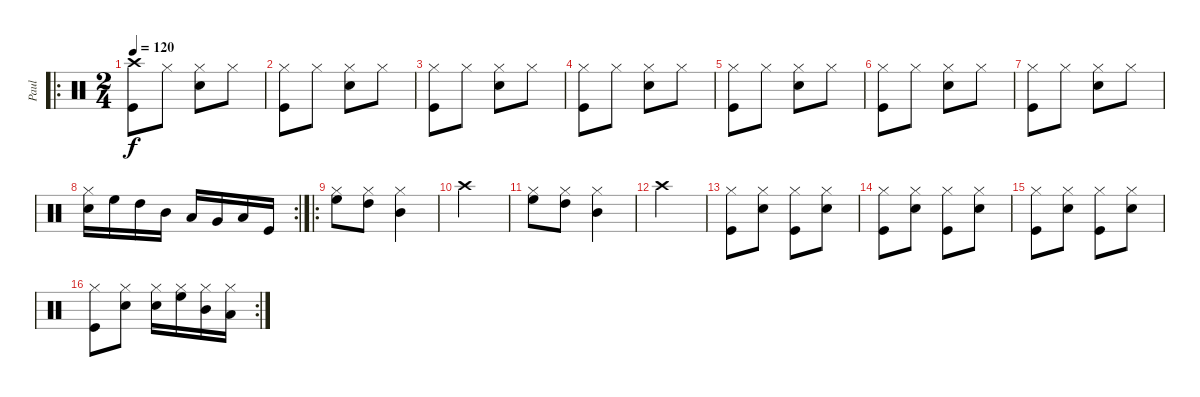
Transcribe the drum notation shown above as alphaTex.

\track ("Paul" "Paul") {instrument percussion}
\staff {score}
\articulation defaults
\ro
\ts (2 4)
\tempo 120
\clef neutral
\ks c
("Crash high (hit)" "Kick (hit)").8{dy f} "Hi-Hat (closed)".8 ("Hi-Hat (closed)" "Snare (hit) 2").8 "Hi-Hat (closed)".8 |
("Hi-Hat (closed)" "Kick (hit)").8 "Hi-Hat (closed)".8 ("Hi-Hat (closed)" "Snare (hit) 2").8 "Hi-Hat (closed)".8 |
("Hi-Hat (closed)" "Kick (hit)").8 "Hi-Hat (closed)".8 ("Hi-Hat (closed)" "Snare (hit) 2").8 "Hi-Hat (closed)".8 |
("Hi-Hat (closed)" "Kick (hit)").8 "Hi-Hat (closed)".8 ("Hi-Hat (closed)" "Snare (hit) 2").8 "Hi-Hat (closed)".8 |
("Hi-Hat (closed)" "Kick (hit)").8 "Hi-Hat (closed)".8 ("Hi-Hat (closed)" "Snare (hit) 2").8 "Hi-Hat (closed)".8 |
("Hi-Hat (closed)" "Kick (hit)").8 "Hi-Hat (closed)".8 ("Hi-Hat (closed)" "Snare (hit) 2").8 "Hi-Hat (closed)".8 |
("Hi-Hat (closed)" "Kick (hit)").8 "Hi-Hat (closed)".8 ("Hi-Hat (closed)" "Snare (hit) 2").8 "Hi-Hat (closed)".8 |
\rc 2
("Hi-Hat (closed)" "Snare (hit) 2").16 "High Floor Tom (hit)".16 "High Tom (hit)".16 "Mid Tom (hit)".16 "Low Tom (hit)".16 "Very Low Tom (hit)".16 "Low Floor Tom (hit)".16 "Kick (hit)".16 |
\ro
("Hi-Hat (closed)" "High Floor Tom (hit)").8 ("Hi-Hat (closed)" "High Tom (hit)").8 ("Hi-Hat (closed)" "Mid Tom (hit)").4 |
"Crash high (hit)".2 |
("Hi-Hat (closed)" "High Floor Tom (hit)").8 ("Hi-Hat (closed)" "High Tom (hit)").8 ("Hi-Hat (closed)" "Mid Tom (hit)").4 |
"Crash high (hit)".2 |
("Hi-Hat (closed)" "Kick (hit)").8 ("Hi-Hat (closed)" "Snare (hit) 2").8 ("Hi-Hat (closed)" "Kick (hit)").8 ("Hi-Hat (closed)" "Snare (hit) 2").8 |
("Hi-Hat (closed)" "Kick (hit)").8 ("Hi-Hat (closed)" "Snare (hit) 2").8 ("Hi-Hat (closed)" "Kick (hit)").8 ("Hi-Hat (closed)" "Snare (hit) 2").8 |
("Hi-Hat (closed)" "Kick (hit)").8 ("Hi-Hat (closed)" "Snare (hit) 2").8 ("Hi-Hat (closed)" "Kick (hit)").8 ("Hi-Hat (closed)" "Snare (hit) 2").8 |
\rc 2
("Hi-Hat (closed)" "Kick (hit)").8 ("Hi-Hat (closed)" "Snare (hit) 2").8 ("Hi-Hat (closed)" "Snare (hit) 2").16 ("Hi-Hat (closed)" "High Floor Tom (hit)").16 ("Hi-Hat (closed)" "Mid Tom (hit)").16 ("Hi-Hat (closed)" "Low Tom (hit)").16
